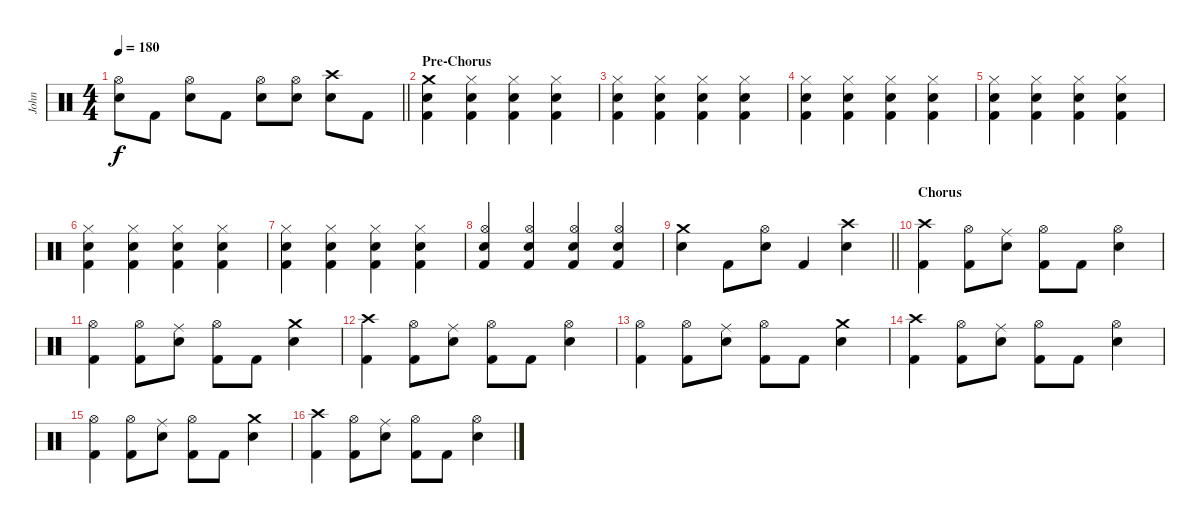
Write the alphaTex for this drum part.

\track ("John" "John") {instrument percussion}
\staff {score}
\articulation defaults
\ts (4 4)
\tempo 180
\clef neutral
\barLineRight lightlight
\ks c
("Snare (hit) 2" "Hi-Hat (open)").8{dy f} "Kick (hit) 2".8 ("Snare (hit) 2" "Hi-Hat (open)").8 "Kick (hit) 2".8 ("Snare (hit) 2" "Hi-Hat (open)").8 ("Snare (hit) 2" "Hi-Hat (open)").8 ("Snare (hit) 2" "Crash high (hit)").8 "Kick (hit) 2".8 |
\section ("" "Pre-Chorus")
("Crash medium (hit)" "Kick (hit) 2" "Snare (hit) 2").4 ("Hi-Hat (closed)" "Kick (hit) 2" "Snare (hit) 2").4 ("Hi-Hat (closed)" "Kick (hit) 2" "Snare (hit) 2").4 ("Hi-Hat (closed)" "Kick (hit) 2" "Snare (hit) 2").4 |
("Hi-Hat (closed)" "Kick (hit) 2" "Snare (hit) 2").4 ("Hi-Hat (closed)" "Kick (hit) 2" "Snare (hit) 2").4 ("Hi-Hat (closed)" "Kick (hit) 2" "Snare (hit) 2").4 ("Hi-Hat (closed)" "Kick (hit) 2" "Snare (hit) 2").4 |
("Hi-Hat (closed)" "Kick (hit) 2" "Snare (hit) 2").4 ("Hi-Hat (closed)" "Kick (hit) 2" "Snare (hit) 2").4 ("Hi-Hat (closed)" "Kick (hit) 2" "Snare (hit) 2").4 ("Hi-Hat (closed)" "Kick (hit) 2" "Snare (hit) 2").4 |
("Hi-Hat (closed)" "Kick (hit) 2" "Snare (hit) 2").4 ("Hi-Hat (closed)" "Kick (hit) 2" "Snare (hit) 2").4 ("Hi-Hat (closed)" "Kick (hit) 2" "Snare (hit) 2").4 ("Hi-Hat (closed)" "Kick (hit) 2" "Snare (hit) 2").4 |
("Hi-Hat (closed)" "Kick (hit) 2" "Snare (hit) 2").4 ("Hi-Hat (closed)" "Kick (hit) 2" "Snare (hit) 2").4 ("Hi-Hat (closed)" "Kick (hit) 2" "Snare (hit) 2").4 ("Hi-Hat (closed)" "Kick (hit) 2" "Snare (hit) 2").4 |
("Hi-Hat (closed)" "Kick (hit) 2" "Snare (hit) 2").4 ("Hi-Hat (closed)" "Kick (hit) 2" "Snare (hit) 2").4 ("Hi-Hat (closed)" "Kick (hit) 2" "Snare (hit) 2").4 ("Hi-Hat (closed)" "Kick (hit) 2" "Snare (hit) 2").4 |
("Hi-Hat (open)" "Kick (hit) 2" "Snare (hit) 2").4 ("Hi-Hat (open)" "Kick (hit) 2" "Snare (hit) 2").4 ("Hi-Hat (open)" "Kick (hit) 2" "Snare (hit) 2").4 ("Hi-Hat (open)" "Kick (hit) 2" "Snare (hit) 2").4 |
\barLineRight lightlight
("Crash medium (hit)" "Snare (hit) 2").4 "Kick (hit) 2".8 ("Hi-Hat (open)" "Snare (hit) 2").8 "Kick (hit) 2".4 ("Crash high (hit)" "Snare (hit) 2").4 |
\section ("" "Chorus")
("Crash high (hit)" "Kick (hit) 2").4 ("Hi-Hat (open)" "Kick (hit) 2").8 ("Ride (middle)" "Snare (hit) 2").8 ("Hi-Hat (open)" "Kick (hit) 2").8 "Kick (hit) 2".8 ("Hi-Hat (open)" "Snare (hit) 2").4 |
("Hi-Hat (open)" "Kick (hit) 2").4 ("Hi-Hat (open)" "Kick (hit) 2").8 ("Ride (middle)" "Snare (hit) 2").8 ("Hi-Hat (open)" "Kick (hit) 2").8 "Kick (hit) 2".8 ("Crash medium (hit)" "Snare (hit) 2").4 |
("Crash high (hit)" "Kick (hit) 2").4 ("Hi-Hat (open)" "Kick (hit) 2").8 ("Ride (middle)" "Snare (hit) 2").8 ("Hi-Hat (open)" "Kick (hit) 2").8 "Kick (hit) 2".8 ("Hi-Hat (open)" "Snare (hit) 2").4 |
("Hi-Hat (open)" "Kick (hit) 2").4 ("Hi-Hat (open)" "Kick (hit) 2").8 ("Ride (middle)" "Snare (hit) 2").8 ("Hi-Hat (open)" "Kick (hit) 2").8 "Kick (hit) 2".8 ("Crash medium (hit)" "Snare (hit) 2").4 |
("Crash high (hit)" "Kick (hit) 2").4 ("Hi-Hat (open)" "Kick (hit) 2").8 ("Ride (middle)" "Snare (hit) 2").8 ("Hi-Hat (open)" "Kick (hit) 2").8 "Kick (hit) 2".8 ("Hi-Hat (open)" "Snare (hit) 2").4 |
("Hi-Hat (open)" "Kick (hit) 2").4 ("Hi-Hat (open)" "Kick (hit) 2").8 ("Ride (middle)" "Snare (hit) 2").8 ("Hi-Hat (open)" "Kick (hit) 2").8 "Kick (hit) 2".8 ("Crash medium (hit)" "Snare (hit) 2").4 |
("Crash high (hit)" "Kick (hit) 2").4 ("Hi-Hat (open)" "Kick (hit) 2").8 ("Ride (middle)" "Snare (hit) 2").8 ("Hi-Hat (open)" "Kick (hit) 2").8 "Kick (hit) 2".8 ("Hi-Hat (open)" "Snare (hit) 2").4
